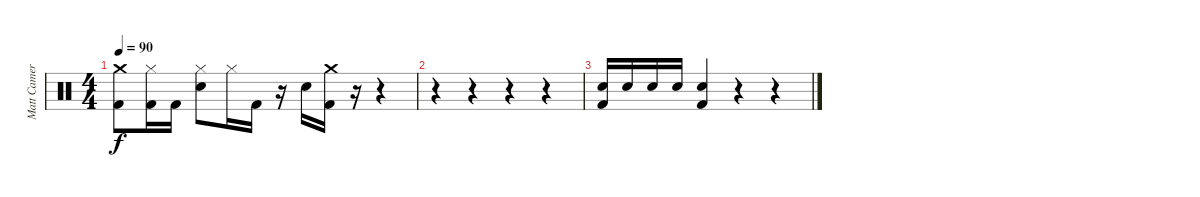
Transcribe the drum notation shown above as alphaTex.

\track ("Matt Cameron" "Matt Camer") {instrument percussion}
\staff {score}
\articulation defaults
\ts (4 4)
\tempo 90
\clef neutral
\ks c
("Crash medium (hit)" "Kick (hit) 2").8{dy f} ("Hi-Hat (closed)" "Kick (hit) 2").16 "Kick (hit) 2".16 ("Hi-Hat (closed)" "Electric Snare (hit)").8 "Hi-Hat (closed)".16 "Kick (hit) 2".16 r.16 "Electric Snare (hit)".16 ("Crash medium (hit)" "Kick (hit) 2").16 r.16 r.4 |
r.4 r.4 r.4 r.4 |
("Electric Snare (hit)" "Kick (hit) 2").16 "Electric Snare (hit)".16 "Electric Snare (hit)".16 "Electric Snare (hit)".16 ("Electric Snare (hit)" "Kick (hit) 2").4 r.4 r.4
